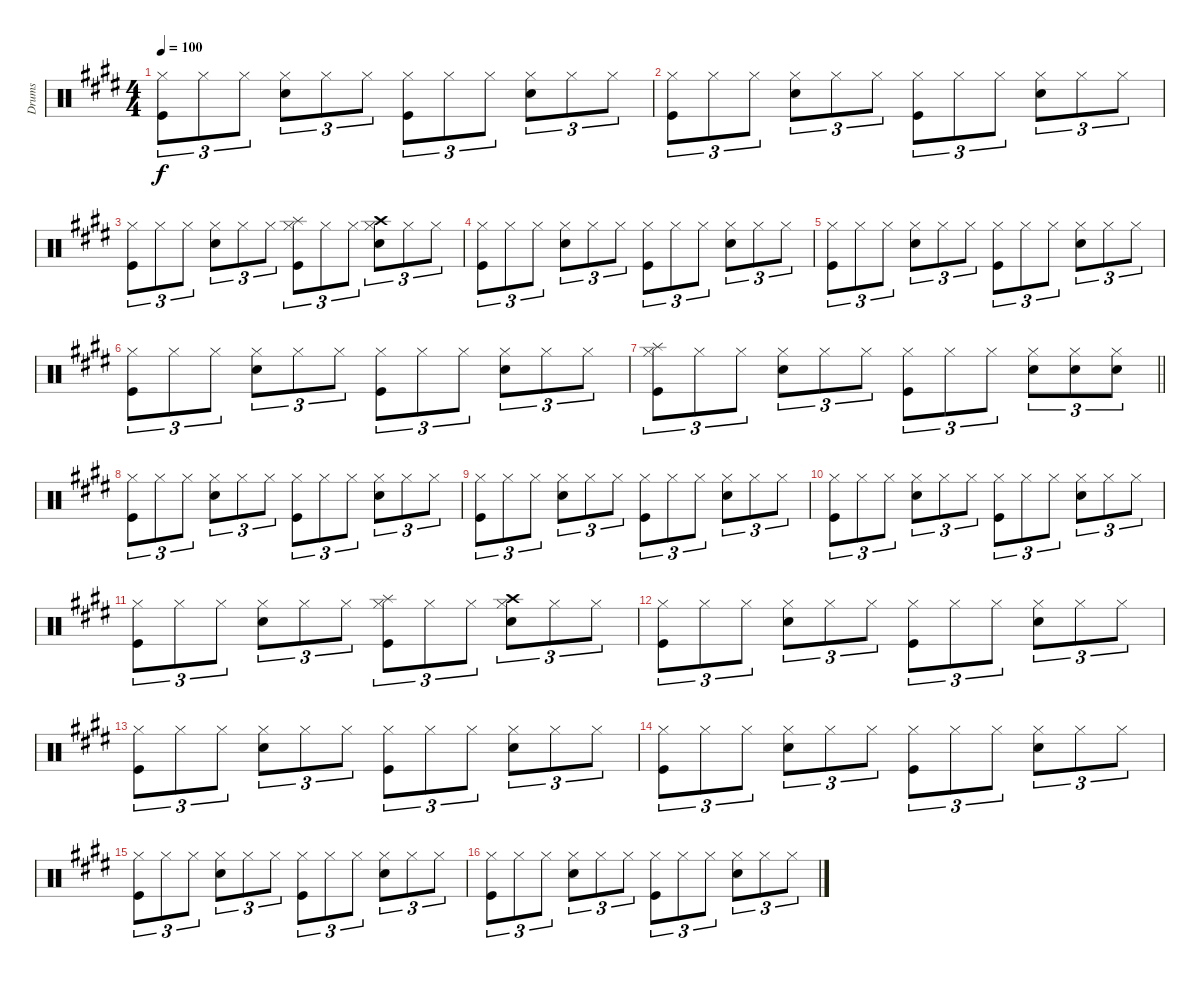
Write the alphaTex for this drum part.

\track ("Drums" "Drums") {instrument percussion}
\staff {score}
\articulation defaults
\ts (4 4)
\tempo 100
\clef neutral
\ks c#minor
("Hi-Hat (closed)" "Kick (hit)").8{tu (3 2) dy f} "Hi-Hat (closed)".8{tu (3 2)} "Hi-Hat (closed)".8{tu (3 2)} ("Hi-Hat (closed)" "Snare (hit) 2").8{tu (3 2)} "Hi-Hat (closed)".8{tu (3 2)} "Hi-Hat (closed)".8{tu (3 2)} ("Hi-Hat (closed)" "Kick (hit)").8{tu (3 2)} "Hi-Hat (closed)".8{tu (3 2)} "Hi-Hat (closed)".8{tu (3 2)} ("Hi-Hat (closed)" "Snare (hit) 2").8{tu (3 2)} "Hi-Hat (closed)".8{tu (3 2)} "Hi-Hat (closed)".8{tu (3 2)} |
\ks e
("Hi-Hat (closed)" "Kick (hit)").8{tu (3 2)} "Hi-Hat (closed)".8{tu (3 2)} "Hi-Hat (closed)".8{tu (3 2)} ("Hi-Hat (closed)" "Snare (hit) 2").8{tu (3 2)} "Hi-Hat (closed)".8{tu (3 2)} "Hi-Hat (closed)".8{tu (3 2)} ("Hi-Hat (closed)" "Kick (hit)").8{tu (3 2)} "Hi-Hat (closed)".8{tu (3 2)} "Hi-Hat (closed)".8{tu (3 2)} ("Hi-Hat (closed)" "Snare (hit) 2").8{tu (3 2)} "Hi-Hat (closed)".8{tu (3 2)} "Hi-Hat (closed)".8{tu (3 2)} |
\ks c#minor
("Hi-Hat (closed)" "Kick (hit)").8{tu (3 2)} "Hi-Hat (closed)".8{tu (3 2)} "Hi-Hat (closed)".8{tu (3 2)} ("Hi-Hat (closed)" "Snare (hit) 2").8{tu (3 2)} "Hi-Hat (closed)".8{tu (3 2)} "Hi-Hat (closed)".8{tu (3 2)} ("Hi-Hat (closed)" "Splash (hit)" "Kick (hit)").8{tu (3 2)} "Hi-Hat (closed)".8{tu (3 2)} "Hi-Hat (closed)".8{tu (3 2)} ("Hi-Hat (closed)" "Crash high (hit)" "Snare (hit) 2").8{tu (3 2)} "Hi-Hat (closed)".8{tu (3 2)} "Hi-Hat (closed)".8{tu (3 2)} |
("Hi-Hat (closed)" "Kick (hit)").8{tu (3 2)} "Hi-Hat (closed)".8{tu (3 2)} "Hi-Hat (closed)".8{tu (3 2)} ("Hi-Hat (closed)" "Snare (hit) 2").8{tu (3 2)} "Hi-Hat (closed)".8{tu (3 2)} "Hi-Hat (closed)".8{tu (3 2)} ("Hi-Hat (closed)" "Kick (hit)").8{tu (3 2)} "Hi-Hat (closed)".8{tu (3 2)} "Hi-Hat (closed)".8{tu (3 2)} ("Hi-Hat (closed)" "Snare (hit) 2").8{tu (3 2)} "Hi-Hat (closed)".8{tu (3 2)} "Hi-Hat (closed)".8{tu (3 2)} |
("Hi-Hat (closed)" "Kick (hit)").8{tu (3 2)} "Hi-Hat (closed)".8{tu (3 2)} "Hi-Hat (closed)".8{tu (3 2)} ("Hi-Hat (closed)" "Snare (hit) 2").8{tu (3 2)} "Hi-Hat (closed)".8{tu (3 2)} "Hi-Hat (closed)".8{tu (3 2)} ("Hi-Hat (closed)" "Kick (hit)").8{tu (3 2)} "Hi-Hat (closed)".8{tu (3 2)} "Hi-Hat (closed)".8{tu (3 2)} ("Hi-Hat (closed)" "Snare (hit) 2").8{tu (3 2)} "Hi-Hat (closed)".8{tu (3 2)} "Hi-Hat (closed)".8{tu (3 2)} |
\ks e
("Hi-Hat (closed)" "Kick (hit)").8{tu (3 2)} "Hi-Hat (closed)".8{tu (3 2)} "Hi-Hat (closed)".8{tu (3 2)} ("Hi-Hat (closed)" "Snare (hit) 2").8{tu (3 2)} "Hi-Hat (closed)".8{tu (3 2)} "Hi-Hat (closed)".8{tu (3 2)} ("Hi-Hat (closed)" "Kick (hit)").8{tu (3 2)} "Hi-Hat (closed)".8{tu (3 2)} "Hi-Hat (closed)".8{tu (3 2)} ("Hi-Hat (closed)" "Snare (hit) 2").8{tu (3 2)} "Hi-Hat (closed)".8{tu (3 2)} "Hi-Hat (closed)".8{tu (3 2)} |
\barLineRight lightlight
\ks c#minor
("Hi-Hat (closed)" "Splash (hit)" "Kick (hit)").8{tu (3 2)} "Hi-Hat (closed)".8{tu (3 2)} "Hi-Hat (closed)".8{tu (3 2)} ("Hi-Hat (closed)" "Snare (hit) 2").8{tu (3 2)} "Hi-Hat (closed)".8{tu (3 2)} "Hi-Hat (closed)".8{tu (3 2)} ("Hi-Hat (closed)" "Kick (hit)").8{tu (3 2)} "Hi-Hat (closed)".8{tu (3 2)} "Hi-Hat (closed)".8{tu (3 2)} ("Hi-Hat (closed)" "Snare (hit) 2").8{tu (3 2)} ("Hi-Hat (closed)" "Snare (hit) 2").8{tu (3 2)} ("Hi-Hat (closed)" "Snare (hit) 2").8{tu (3 2)} |
("Hi-Hat (closed)" "Kick (hit)").8{tu (3 2)} "Hi-Hat (closed)".8{tu (3 2)} "Hi-Hat (closed)".8{tu (3 2)} ("Hi-Hat (closed)" "Snare (hit) 2").8{tu (3 2)} "Hi-Hat (closed)".8{tu (3 2)} "Hi-Hat (closed)".8{tu (3 2)} ("Hi-Hat (closed)" "Kick (hit)").8{tu (3 2)} "Hi-Hat (closed)".8{tu (3 2)} "Hi-Hat (closed)".8{tu (3 2)} ("Hi-Hat (closed)" "Snare (hit) 2").8{tu (3 2)} "Hi-Hat (closed)".8{tu (3 2)} "Hi-Hat (closed)".8{tu (3 2)} |
\ks e
("Hi-Hat (closed)" "Kick (hit)").8{tu (3 2)} "Hi-Hat (closed)".8{tu (3 2)} "Hi-Hat (closed)".8{tu (3 2)} ("Hi-Hat (closed)" "Snare (hit) 2").8{tu (3 2)} "Hi-Hat (closed)".8{tu (3 2)} "Hi-Hat (closed)".8{tu (3 2)} ("Hi-Hat (closed)" "Kick (hit)").8{tu (3 2)} "Hi-Hat (closed)".8{tu (3 2)} "Hi-Hat (closed)".8{tu (3 2)} ("Hi-Hat (closed)" "Snare (hit) 2").8{tu (3 2)} "Hi-Hat (closed)".8{tu (3 2)} "Hi-Hat (closed)".8{tu (3 2)} |
\ks c#minor
("Hi-Hat (closed)" "Kick (hit)").8{tu (3 2)} "Hi-Hat (closed)".8{tu (3 2)} "Hi-Hat (closed)".8{tu (3 2)} ("Hi-Hat (closed)" "Snare (hit) 2").8{tu (3 2)} "Hi-Hat (closed)".8{tu (3 2)} "Hi-Hat (closed)".8{tu (3 2)} ("Hi-Hat (closed)" "Kick (hit)").8{tu (3 2)} "Hi-Hat (closed)".8{tu (3 2)} "Hi-Hat (closed)".8{tu (3 2)} ("Hi-Hat (closed)" "Snare (hit) 2").8{tu (3 2)} "Hi-Hat (closed)".8{tu (3 2)} "Hi-Hat (closed)".8{tu (3 2)} |
\ks e
("Hi-Hat (closed)" "Kick (hit)").8{tu (3 2)} "Hi-Hat (closed)".8{tu (3 2)} "Hi-Hat (closed)".8{tu (3 2)} ("Hi-Hat (closed)" "Snare (hit) 2").8{tu (3 2)} "Hi-Hat (closed)".8{tu (3 2)} "Hi-Hat (closed)".8{tu (3 2)} ("Hi-Hat (closed)" "Splash (hit)" "Kick (hit)").8{tu (3 2)} "Hi-Hat (closed)".8{tu (3 2)} "Hi-Hat (closed)".8{tu (3 2)} ("Hi-Hat (closed)" "Crash high (hit)" "Snare (hit) 2").8{tu (3 2)} "Hi-Hat (closed)".8{tu (3 2)} "Hi-Hat (closed)".8{tu (3 2)} |
\ks c#minor
("Hi-Hat (closed)" "Kick (hit)").8{tu (3 2)} "Hi-Hat (closed)".8{tu (3 2)} "Hi-Hat (closed)".8{tu (3 2)} ("Hi-Hat (closed)" "Snare (hit) 2").8{tu (3 2)} "Hi-Hat (closed)".8{tu (3 2)} "Hi-Hat (closed)".8{tu (3 2)} ("Hi-Hat (closed)" "Kick (hit)").8{tu (3 2)} "Hi-Hat (closed)".8{tu (3 2)} "Hi-Hat (closed)".8{tu (3 2)} ("Hi-Hat (closed)" "Snare (hit) 2").8{tu (3 2)} "Hi-Hat (closed)".8{tu (3 2)} "Hi-Hat (closed)".8{tu (3 2)} |
\ks e
("Hi-Hat (closed)" "Kick (hit)").8{tu (3 2)} "Hi-Hat (closed)".8{tu (3 2)} "Hi-Hat (closed)".8{tu (3 2)} ("Hi-Hat (closed)" "Snare (hit) 2").8{tu (3 2)} "Hi-Hat (closed)".8{tu (3 2)} "Hi-Hat (closed)".8{tu (3 2)} ("Hi-Hat (closed)" "Kick (hit)").8{tu (3 2)} "Hi-Hat (closed)".8{tu (3 2)} "Hi-Hat (closed)".8{tu (3 2)} ("Hi-Hat (closed)" "Snare (hit) 2").8{tu (3 2)} "Hi-Hat (closed)".8{tu (3 2)} "Hi-Hat (closed)".8{tu (3 2)} |
\ks c#minor
("Hi-Hat (closed)" "Kick (hit)").8{tu (3 2)} "Hi-Hat (closed)".8{tu (3 2)} "Hi-Hat (closed)".8{tu (3 2)} ("Hi-Hat (closed)" "Snare (hit) 2").8{tu (3 2)} "Hi-Hat (closed)".8{tu (3 2)} "Hi-Hat (closed)".8{tu (3 2)} ("Hi-Hat (closed)" "Kick (hit)").8{tu (3 2)} "Hi-Hat (closed)".8{tu (3 2)} "Hi-Hat (closed)".8{tu (3 2)} ("Hi-Hat (closed)" "Snare (hit) 2").8{tu (3 2)} "Hi-Hat (closed)".8{tu (3 2)} "Hi-Hat (closed)".8{tu (3 2)} |
("Hi-Hat (closed)" "Kick (hit)").8{tu (3 2)} "Hi-Hat (closed)".8{tu (3 2)} "Hi-Hat (closed)".8{tu (3 2)} ("Hi-Hat (closed)" "Snare (hit) 2").8{tu (3 2)} "Hi-Hat (closed)".8{tu (3 2)} "Hi-Hat (closed)".8{tu (3 2)} ("Hi-Hat (closed)" "Kick (hit)").8{tu (3 2)} "Hi-Hat (closed)".8{tu (3 2)} "Hi-Hat (closed)".8{tu (3 2)} ("Hi-Hat (closed)" "Snare (hit) 2").8{tu (3 2)} "Hi-Hat (closed)".8{tu (3 2)} "Hi-Hat (closed)".8{tu (3 2)} |
\ks e
("Hi-Hat (closed)" "Kick (hit)").8{tu (3 2)} "Hi-Hat (closed)".8{tu (3 2)} "Hi-Hat (closed)".8{tu (3 2)} ("Hi-Hat (closed)" "Snare (hit) 2").8{tu (3 2)} "Hi-Hat (closed)".8{tu (3 2)} "Hi-Hat (closed)".8{tu (3 2)} ("Hi-Hat (closed)" "Kick (hit)").8{tu (3 2)} "Hi-Hat (closed)".8{tu (3 2)} "Hi-Hat (closed)".8{tu (3 2)} ("Hi-Hat (closed)" "Snare (hit) 2").8{tu (3 2)} "Hi-Hat (closed)".8{tu (3 2)} "Hi-Hat (closed)".8{tu (3 2)}
